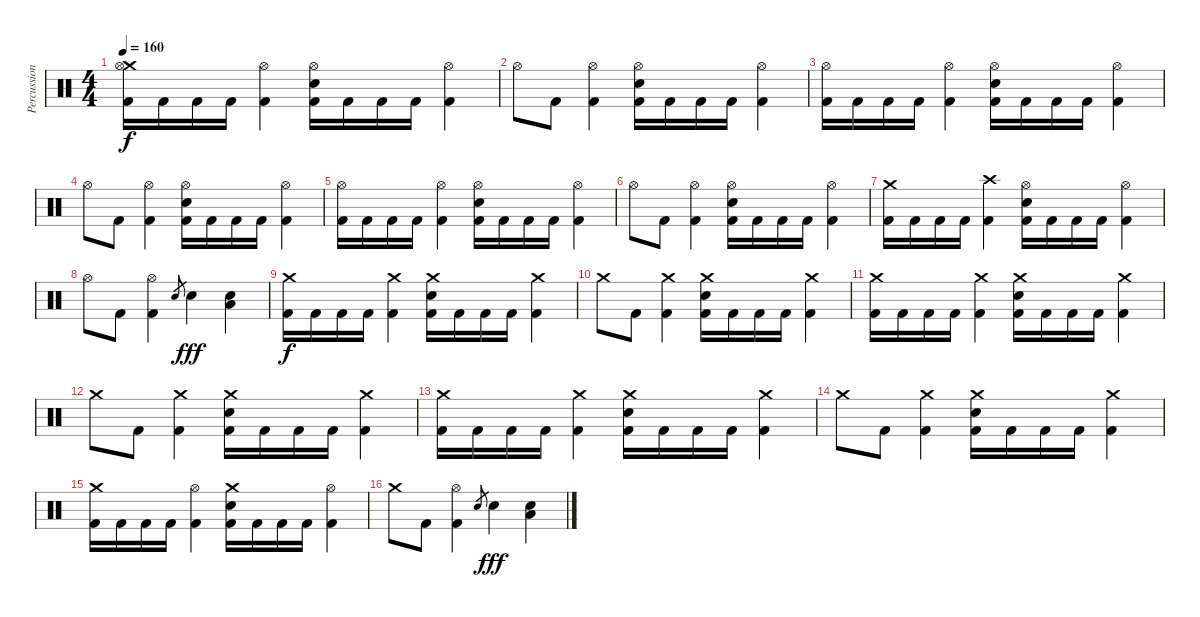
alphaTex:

\track ("Percussion" "Percussion") {instrument percussion}
\staff {score}
\articulation defaults
\ts (4 4)
\tempo 160
\clef neutral
\ks c
("Crash medium (hit)" "Hi-Hat (open)" "Kick (hit) 2").16{dy f} "Kick (hit) 2".16 "Kick (hit) 2".16 "Kick (hit) 2".16 ("Hi-Hat (open)" "Kick (hit) 2").4 ("Hi-Hat (open)" "Electric Snare (hit)" "Kick (hit) 2").16 "Kick (hit) 2".16 "Kick (hit) 2".16 "Kick (hit) 2".16 ("Hi-Hat (open)" "Kick (hit) 2").4 |
"Hi-Hat (open)".8 "Kick (hit) 2".8 ("Hi-Hat (open)" "Kick (hit) 2").4 ("Hi-Hat (open)" "Electric Snare (hit)" "Kick (hit) 2").16 "Kick (hit) 2".16 "Kick (hit) 2".16 "Kick (hit) 2".16 ("Hi-Hat (open)" "Kick (hit) 2").4 |
("Hi-Hat (open)" "Kick (hit) 2").16 "Kick (hit) 2".16 "Kick (hit) 2".16 "Kick (hit) 2".16 ("Hi-Hat (open)" "Kick (hit) 2").4 ("Hi-Hat (open)" "Electric Snare (hit)" "Kick (hit) 2").16 "Kick (hit) 2".16 "Kick (hit) 2".16 "Kick (hit) 2".16 ("Hi-Hat (open)" "Kick (hit) 2").4 |
"Hi-Hat (open)".8 "Kick (hit) 2".8 ("Hi-Hat (open)" "Kick (hit) 2").4 ("Hi-Hat (open)" "Electric Snare (hit)" "Kick (hit) 2").16 "Kick (hit) 2".16 "Kick (hit) 2".16 "Kick (hit) 2".16 ("Hi-Hat (open)" "Kick (hit) 2").4 |
("Hi-Hat (open)" "Kick (hit) 2").16 "Kick (hit) 2".16 "Kick (hit) 2".16 "Kick (hit) 2".16 ("Hi-Hat (open)" "Kick (hit) 2").4 ("Hi-Hat (open)" "Electric Snare (hit)" "Kick (hit) 2").16 "Kick (hit) 2".16 "Kick (hit) 2".16 "Kick (hit) 2".16 ("Hi-Hat (open)" "Kick (hit) 2").4 |
"Hi-Hat (open)".8 "Kick (hit) 2".8 ("Hi-Hat (open)" "Kick (hit) 2").4 ("Hi-Hat (open)" "Electric Snare (hit)" "Kick (hit) 2").16 "Kick (hit) 2".16 "Kick (hit) 2".16 "Kick (hit) 2".16 ("Hi-Hat (open)" "Kick (hit) 2").4 |
("Crash medium (hit)" "Kick (hit) 2").16 "Kick (hit) 2".16 "Kick (hit) 2".16 "Kick (hit) 2".16 ("Crash high (hit)" "Kick (hit) 2").4 ("Hi-Hat (open)" "Electric Snare (hit)" "Kick (hit) 2").16 "Kick (hit) 2".16 "Kick (hit) 2".16 "Kick (hit) 2".16 ("Hi-Hat (open)" "Kick (hit) 2").4 |
"Hi-Hat (open)".8 "Kick (hit) 2".8 ("Hi-Hat (open)" "Kick (hit) 2").4 "Electric Snare (hit)".8{gr} "Electric Snare (hit)".4{dy fff} ("Low Tom (hit)" "Electric Snare (hit)").4 |
("Crash medium (hit)" "Kick (hit) 2").16{dy f} "Kick (hit) 2".16 "Kick (hit) 2".16 "Kick (hit) 2".16 ("Crash medium (hit)" "Kick (hit) 2").4 ("Crash medium (hit)" "Electric Snare (hit)" "Kick (hit) 2").16 "Kick (hit) 2".16 "Kick (hit) 2".16 "Kick (hit) 2".16 ("Crash medium (hit)" "Kick (hit) 2").4 |
"Crash medium (hit)".8 "Kick (hit) 2".8 ("Crash medium (hit)" "Kick (hit) 2").4 ("Crash medium (hit)" "Electric Snare (hit)" "Kick (hit) 2").16 "Kick (hit) 2".16 "Kick (hit) 2".16 "Kick (hit) 2".16 ("Crash medium (hit)" "Kick (hit) 2").4 |
("Crash medium (hit)" "Kick (hit) 2").16 "Kick (hit) 2".16 "Kick (hit) 2".16 "Kick (hit) 2".16 ("Crash medium (hit)" "Kick (hit) 2").4 ("Crash medium (hit)" "Electric Snare (hit)" "Kick (hit) 2").16 "Kick (hit) 2".16 "Kick (hit) 2".16 "Kick (hit) 2".16 ("Crash medium (hit)" "Kick (hit) 2").4 |
"Crash medium (hit)".8 "Kick (hit) 2".8 ("Crash medium (hit)" "Kick (hit) 2").4 ("Crash medium (hit)" "Electric Snare (hit)" "Kick (hit) 2").16 "Kick (hit) 2".16 "Kick (hit) 2".16 "Kick (hit) 2".16 ("Crash medium (hit)" "Kick (hit) 2").4 |
("Crash medium (hit)" "Kick (hit) 2").16 "Kick (hit) 2".16 "Kick (hit) 2".16 "Kick (hit) 2".16 ("Crash medium (hit)" "Kick (hit) 2").4 ("Crash medium (hit)" "Electric Snare (hit)" "Kick (hit) 2").16 "Kick (hit) 2".16 "Kick (hit) 2".16 "Kick (hit) 2".16 ("Crash medium (hit)" "Kick (hit) 2").4 |
"Crash medium (hit)".8 "Kick (hit) 2".8 ("Crash medium (hit)" "Kick (hit) 2").4 ("Crash medium (hit)" "Electric Snare (hit)" "Kick (hit) 2").16 "Kick (hit) 2".16 "Kick (hit) 2".16 "Kick (hit) 2".16 ("Crash medium (hit)" "Kick (hit) 2").4 |
("Crash medium (hit)" "Kick (hit) 2").16 "Kick (hit) 2".16 "Kick (hit) 2".16 "Kick (hit) 2".16 ("Hi-Hat (open)" "Kick (hit) 2").4 ("Crash medium (hit)" "Electric Snare (hit)" "Kick (hit) 2").16 "Kick (hit) 2".16 "Kick (hit) 2".16 "Kick (hit) 2".16 ("Hi-Hat (open)" "Kick (hit) 2").4 |
"Crash medium (hit)".8 "Kick (hit) 2".8 ("Hi-Hat (open)" "Kick (hit) 2").4 "Electric Snare (hit)".8{gr} "Electric Snare (hit)".4{dy fff} ("Low Tom (hit)" "Electric Snare (hit)").4
